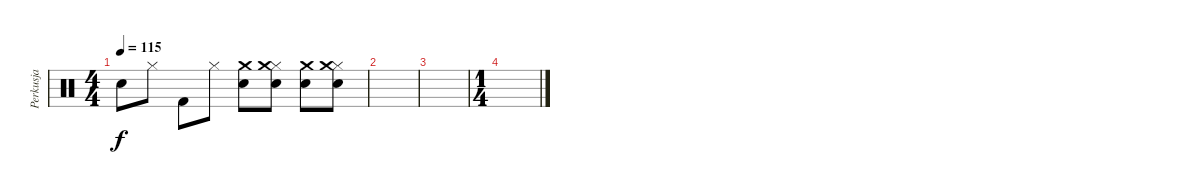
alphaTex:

\track ("Perkusja" "Perkusja") {instrument percussion}
\staff {score}
\articulation defaults
\ts (4 4)
\tempo 115
\clef neutral
\ks c "Snare (hit) 2".8{dy f} "Hi-Hat (closed)".8 "Kick (hit) 2".8 "Hi-Hat (closed)".8
("Snare (hit) 2" "Crash medium (hit)").8 ("Hi-Hat (closed)" "Snare (hit) 2" "Crash medium (hit)").8 ("Snare (hit) 2" "Crash medium (hit)").8 ("Hi-Hat (closed)" "Snare (hit) 2" "Crash medium (hit)").8 |
|
|
\ts (1 4)
